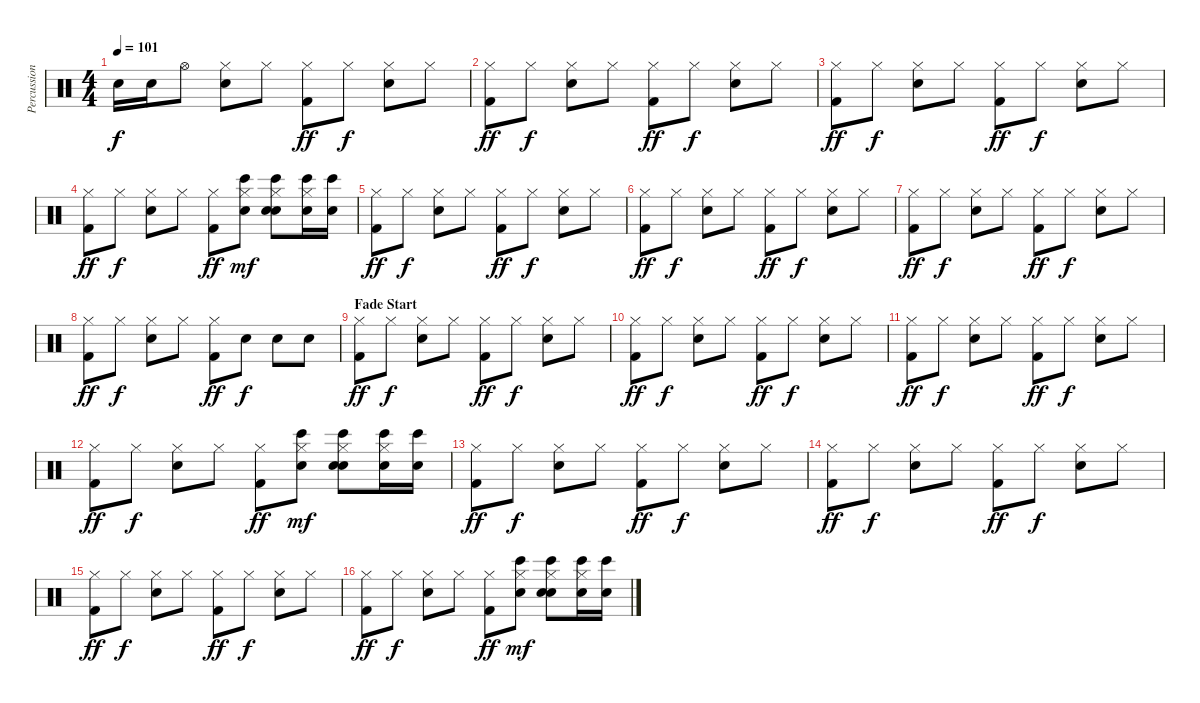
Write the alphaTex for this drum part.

\track ("Percussion" "Percussion") {instrument percussion}
\staff {score}
\articulation defaults
\ts (4 4)
\tempo 101
\clef neutral
\ks c "Electric Snare (hit)".16{dy f} "Electric Snare (hit)".16 "Hi-Hat (open)".8
("Hi-Hat (closed)" "Electric Snare (hit)").8 "Hi-Hat (closed)".8 ("Hi-Hat (closed)" "Kick (hit) 2").8{dy ff} "Hi-Hat (closed)".8{dy f} ("Hi-Hat (closed)" "Electric Snare (hit)").8 "Hi-Hat (closed)".8 |
("Hi-Hat (closed)" "Kick (hit) 2").8{dy ff} "Hi-Hat (closed)".8{dy f} ("Hi-Hat (closed)" "Electric Snare (hit)").8 "Hi-Hat (closed)".8 ("Hi-Hat (closed)" "Kick (hit) 2").8{dy ff} "Hi-Hat (closed)".8{dy f} ("Hi-Hat (closed)" "Electric Snare (hit)").8 "Hi-Hat (closed)".8 |
("Hi-Hat (closed)" "Kick (hit) 2").8{dy ff} "Hi-Hat (closed)".8{dy f} ("Hi-Hat (closed)" "Electric Snare (hit)").8 "Hi-Hat (closed)".8 ("Hi-Hat (closed)" "Kick (hit) 2").8{dy ff} "Hi-Hat (closed)".8{dy f} ("Hi-Hat (closed)" "Electric Snare (hit)").8 "Hi-Hat (closed)".8 |
("Hi-Hat (closed)" "Kick (hit) 2").8{dy ff} "Hi-Hat (closed)".8{dy f} ("Hi-Hat (closed)" "Electric Snare (hit)").8 "Hi-Hat (closed)".8 ("Hi-Hat (closed)" "Kick (hit) 2").8{dy ff} ("Hi-Hat (closed)" "Bongo High (hit)" "Hand Clap (hit)").8{dy mf} ("Hi-Hat (closed)" "Bongo High (hit)" "Hand Clap (hit)" "Electric Snare (hit)").8 ("Hi-Hat (closed)" "Bongo High (hit)" "Hand Clap (hit)").16 ("Bongo High (hit)" "Hand Clap (hit)").16 |
("Hi-Hat (closed)" "Kick (hit) 2").8{dy ff} "Hi-Hat (closed)".8{dy f} ("Hi-Hat (closed)" "Electric Snare (hit)").8 "Hi-Hat (closed)".8 ("Hi-Hat (closed)" "Kick (hit) 2").8{dy ff} "Hi-Hat (closed)".8{dy f} ("Hi-Hat (closed)" "Electric Snare (hit)").8 "Hi-Hat (closed)".8 |
("Hi-Hat (closed)" "Kick (hit) 2").8{dy ff} "Hi-Hat (closed)".8{dy f} ("Hi-Hat (closed)" "Electric Snare (hit)").8 "Hi-Hat (closed)".8 ("Hi-Hat (closed)" "Kick (hit) 2").8{dy ff} "Hi-Hat (closed)".8{dy f} ("Hi-Hat (closed)" "Electric Snare (hit)").8 "Hi-Hat (closed)".8 |
("Hi-Hat (closed)" "Kick (hit) 2").8{dy ff} "Hi-Hat (closed)".8{dy f} ("Hi-Hat (closed)" "Electric Snare (hit)").8 "Hi-Hat (closed)".8 ("Hi-Hat (closed)" "Kick (hit) 2").8{dy ff} "Hi-Hat (closed)".8{dy f} ("Hi-Hat (closed)" "Electric Snare (hit)").8 "Hi-Hat (closed)".8 |
("Hi-Hat (closed)" "Kick (hit) 2").8{dy ff} "Hi-Hat (closed)".8{dy f} ("Hi-Hat (closed)" "Electric Snare (hit)").8 "Hi-Hat (closed)".8 ("Hi-Hat (closed)" "Kick (hit) 2").8{dy ff} "Electric Snare (hit)".8{dy f} "Electric Snare (hit)".8 "Electric Snare (hit)"{tr (40 64)}.8 |
\section ("" "Fade Start")
("Hi-Hat (closed)" "Kick (hit) 2").8{dy ff} "Hi-Hat (closed)".8{dy f} ("Hi-Hat (closed)" "Electric Snare (hit)").8 "Hi-Hat (closed)".8 ("Hi-Hat (closed)" "Kick (hit) 2").8{dy ff} "Hi-Hat (closed)".8{dy f} ("Hi-Hat (closed)" "Electric Snare (hit)").8 "Hi-Hat (closed)".8 |
("Hi-Hat (closed)" "Kick (hit) 2").8{dy ff} "Hi-Hat (closed)".8{dy f} ("Hi-Hat (closed)" "Electric Snare (hit)").8 "Hi-Hat (closed)".8 ("Hi-Hat (closed)" "Kick (hit) 2").8{dy ff} "Hi-Hat (closed)".8{dy f} ("Hi-Hat (closed)" "Electric Snare (hit)").8 "Hi-Hat (closed)".8 |
("Hi-Hat (closed)" "Kick (hit) 2").8{dy ff} "Hi-Hat (closed)".8{dy f} ("Hi-Hat (closed)" "Electric Snare (hit)").8 "Hi-Hat (closed)".8 ("Hi-Hat (closed)" "Kick (hit) 2").8{dy ff} "Hi-Hat (closed)".8{dy f} ("Hi-Hat (closed)" "Electric Snare (hit)").8 "Hi-Hat (closed)".8 |
("Hi-Hat (closed)" "Kick (hit) 2").8{dy ff} "Hi-Hat (closed)".8{dy f} ("Hi-Hat (closed)" "Electric Snare (hit)").8 "Hi-Hat (closed)".8 ("Hi-Hat (closed)" "Kick (hit) 2").8{dy ff} ("Hi-Hat (closed)" "Bongo High (hit)" "Hand Clap (hit)").8{dy mf} ("Hi-Hat (closed)" "Bongo High (hit)" "Hand Clap (hit)" "Electric Snare (hit)").8 ("Hi-Hat (closed)" "Bongo High (hit)" "Hand Clap (hit)").16 ("Bongo High (hit)" "Hand Clap (hit)").16 |
("Hi-Hat (closed)" "Kick (hit) 2").8{dy ff} "Hi-Hat (closed)".8{dy f} ("Hi-Hat (closed)" "Electric Snare (hit)").8 "Hi-Hat (closed)".8 ("Hi-Hat (closed)" "Kick (hit) 2").8{dy ff} "Hi-Hat (closed)".8{dy f} ("Hi-Hat (closed)" "Electric Snare (hit)").8 "Hi-Hat (closed)".8 |
("Hi-Hat (closed)" "Kick (hit) 2").8{dy ff} "Hi-Hat (closed)".8{dy f} ("Hi-Hat (closed)" "Electric Snare (hit)").8 "Hi-Hat (closed)".8 ("Hi-Hat (closed)" "Kick (hit) 2").8{dy ff} "Hi-Hat (closed)".8{dy f} ("Hi-Hat (closed)" "Electric Snare (hit)").8 "Hi-Hat (closed)".8 |
("Hi-Hat (closed)" "Kick (hit) 2").8{dy ff} "Hi-Hat (closed)".8{dy f} ("Hi-Hat (closed)" "Electric Snare (hit)").8 "Hi-Hat (closed)".8 ("Hi-Hat (closed)" "Kick (hit) 2").8{dy ff} "Hi-Hat (closed)".8{dy f} ("Hi-Hat (closed)" "Electric Snare (hit)").8 "Hi-Hat (closed)".8 |
("Hi-Hat (closed)" "Kick (hit) 2").8{dy ff} "Hi-Hat (closed)".8{dy f} ("Hi-Hat (closed)" "Electric Snare (hit)").8 "Hi-Hat (closed)".8 ("Hi-Hat (closed)" "Kick (hit) 2").8{dy ff} ("Hi-Hat (closed)" "Bongo High (hit)" "Hand Clap (hit)").8{dy mf} ("Hi-Hat (closed)" "Bongo High (hit)" "Hand Clap (hit)" "Electric Snare (hit)").8 ("Hi-Hat (closed)" "Bongo High (hit)" "Hand Clap (hit)").16 ("Bongo High (hit)" "Hand Clap (hit)").16
